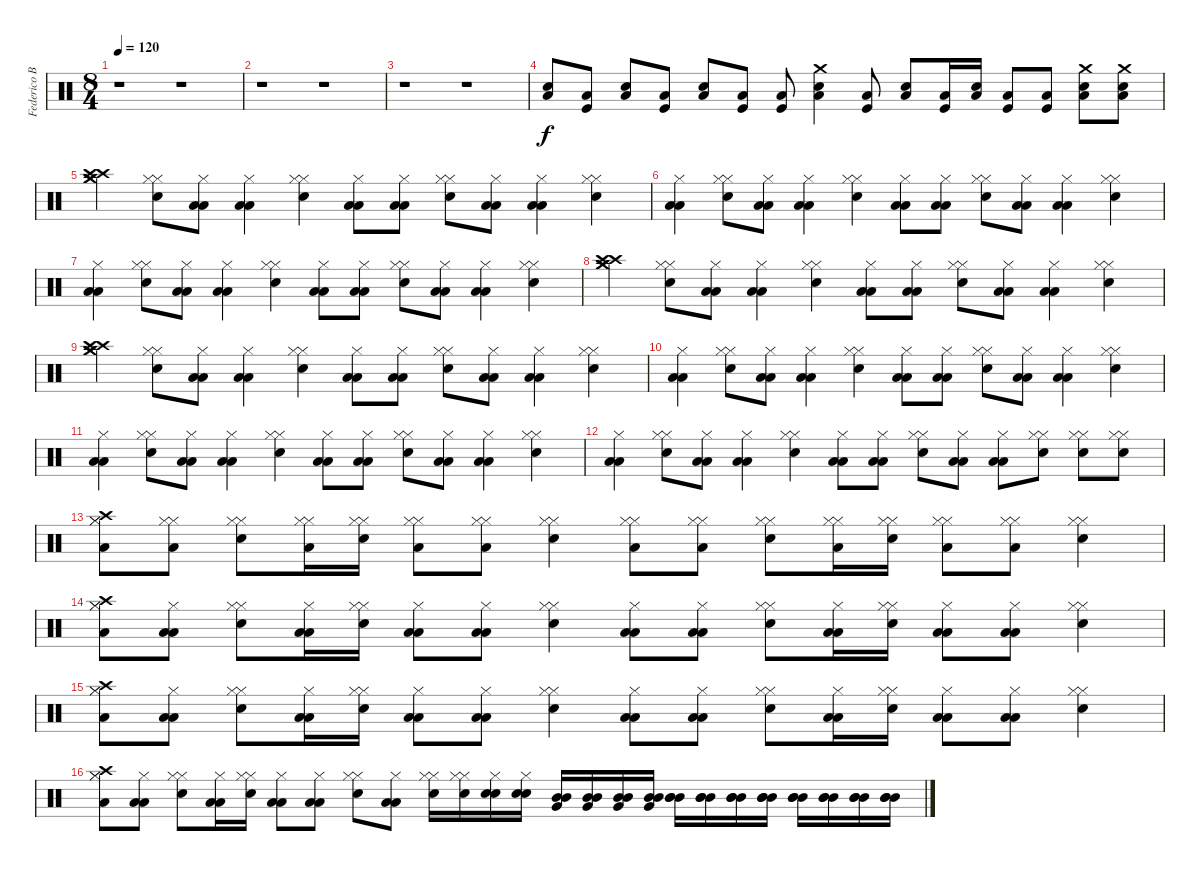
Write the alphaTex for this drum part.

\track ("Federico Bogliaccino - Drums" "Federico B") {instrument percussion}
\staff {score}
\articulation defaults
\ts (8 4)
\tempo 120
\clef neutral
\ks c
r.1{dy f} r.1 |
r.1 r.1 |
r.1 r.1 |
("Low Floor Tom (hit)" "Snare (hit) 2").8 ("Low Floor Tom (hit)" "Kick (hit)").8 ("Low Floor Tom (hit)" "Snare (hit) 2").8 ("Low Floor Tom (hit)" "Kick (hit)").8 ("Low Floor Tom (hit)" "Snare (hit) 2").8 ("Low Floor Tom (hit)" "Kick (hit)").8 ("Low Floor Tom (hit)" "Kick (hit)").8 ("Crash medium (hit)" "Low Floor Tom (hit)" "Snare (hit) 2").4 ("Low Floor Tom (hit)" "Kick (hit)").8 ("Low Floor Tom (hit)" "Snare (hit) 2").8 ("Low Floor Tom (hit)" "Kick (hit)").16 ("Low Floor Tom (hit)" "Snare (hit) 2").16 ("Low Floor Tom (hit)" "Kick (hit)").8 ("Low Floor Tom (hit)" "Kick (hit)").8 ("Crash medium (hit)" "Low Floor Tom (hit)" "Snare (hit) 2").8 ("Crash medium (hit)" "Low Floor Tom (hit)" "Snare (hit) 2").8 |
("Crash medium (hit)" "Crash medium (hit)" "Crash high (hit)" "Crash high (hit)").4 ("Hi-Hat (closed)" "Hi-Hat (closed)" "Snare (hit) 2").8 ("Hi-Hat (closed)" "Low Floor Tom (hit)" "Low Floor Tom (hit)").8 ("Hi-Hat (closed)" "Low Floor Tom (hit)" "Low Floor Tom (hit)").4 ("Hi-Hat (closed)" "Hi-Hat (closed)" "Snare (hit) 2").4 ("Hi-Hat (closed)" "Low Floor Tom (hit)" "Low Floor Tom (hit)").8 ("Hi-Hat (closed)" "Low Floor Tom (hit)" "Low Floor Tom (hit)").8 ("Hi-Hat (closed)" "Hi-Hat (closed)" "Snare (hit) 2").8 ("Hi-Hat (closed)" "Low Floor Tom (hit)" "Low Floor Tom (hit)").8 ("Hi-Hat (closed)" "Low Floor Tom (hit)" "Low Floor Tom (hit)").4 ("Hi-Hat (closed)" "Hi-Hat (closed)" "Snare (hit) 2").4 |
("Hi-Hat (closed)" "Low Floor Tom (hit)" "Low Floor Tom (hit)").4 ("Hi-Hat (closed)" "Hi-Hat (closed)" "Snare (hit) 2").8 ("Hi-Hat (closed)" "Low Floor Tom (hit)" "Low Floor Tom (hit)").8 ("Hi-Hat (closed)" "Low Floor Tom (hit)" "Low Floor Tom (hit)").4 ("Hi-Hat (closed)" "Hi-Hat (closed)" "Snare (hit) 2").4 ("Hi-Hat (closed)" "Low Floor Tom (hit)" "Low Floor Tom (hit)").8 ("Hi-Hat (closed)" "Low Floor Tom (hit)" "Low Floor Tom (hit)").8 ("Hi-Hat (closed)" "Hi-Hat (closed)" "Snare (hit) 2").8 ("Hi-Hat (closed)" "Low Floor Tom (hit)" "Low Floor Tom (hit)").8 ("Hi-Hat (closed)" "Low Floor Tom (hit)" "Low Floor Tom (hit)").4 ("Hi-Hat (closed)" "Hi-Hat (closed)" "Snare (hit) 2").4 |
("Hi-Hat (closed)" "Low Floor Tom (hit)" "Low Floor Tom (hit)").4 ("Hi-Hat (closed)" "Hi-Hat (closed)" "Snare (hit) 2").8 ("Hi-Hat (closed)" "Low Floor Tom (hit)" "Low Floor Tom (hit)").8 ("Hi-Hat (closed)" "Low Floor Tom (hit)" "Low Floor Tom (hit)").4 ("Hi-Hat (closed)" "Hi-Hat (closed)" "Snare (hit) 2").4 ("Hi-Hat (closed)" "Low Floor Tom (hit)" "Low Floor Tom (hit)").8 ("Hi-Hat (closed)" "Low Floor Tom (hit)" "Low Floor Tom (hit)").8 ("Hi-Hat (closed)" "Hi-Hat (closed)" "Snare (hit) 2").8 ("Hi-Hat (closed)" "Low Floor Tom (hit)" "Low Floor Tom (hit)").8 ("Hi-Hat (closed)" "Low Floor Tom (hit)" "Low Floor Tom (hit)").4 ("Hi-Hat (closed)" "Hi-Hat (closed)" "Snare (hit) 2").4 |
("Crash medium (hit)" "Crash medium (hit)" "Crash high (hit)" "Crash high (hit)").4 ("Hi-Hat (closed)" "Hi-Hat (closed)" "Snare (hit) 2").8 ("Hi-Hat (closed)" "Low Floor Tom (hit)" "Low Floor Tom (hit)").8 ("Hi-Hat (closed)" "Low Floor Tom (hit)" "Low Floor Tom (hit)").4 ("Hi-Hat (closed)" "Hi-Hat (closed)" "Snare (hit) 2").4 ("Hi-Hat (closed)" "Low Floor Tom (hit)" "Low Floor Tom (hit)").8 ("Hi-Hat (closed)" "Low Floor Tom (hit)" "Low Floor Tom (hit)").8 ("Hi-Hat (closed)" "Hi-Hat (closed)" "Snare (hit) 2").8 ("Hi-Hat (closed)" "Low Floor Tom (hit)" "Low Floor Tom (hit)").8 ("Hi-Hat (closed)" "Low Floor Tom (hit)" "Low Floor Tom (hit)").4 ("Hi-Hat (closed)" "Hi-Hat (closed)" "Snare (hit) 2").4 |
("Crash medium (hit)" "Crash medium (hit)" "Crash high (hit)" "Crash high (hit)").4 ("Hi-Hat (closed)" "Hi-Hat (closed)" "Snare (hit) 2").8 ("Hi-Hat (closed)" "Low Floor Tom (hit)" "Low Floor Tom (hit)").8 ("Hi-Hat (closed)" "Low Floor Tom (hit)" "Low Floor Tom (hit)").4 ("Hi-Hat (closed)" "Hi-Hat (closed)" "Snare (hit) 2").4 ("Hi-Hat (closed)" "Low Floor Tom (hit)" "Low Floor Tom (hit)").8 ("Hi-Hat (closed)" "Low Floor Tom (hit)" "Low Floor Tom (hit)").8 ("Hi-Hat (closed)" "Hi-Hat (closed)" "Snare (hit) 2").8 ("Hi-Hat (closed)" "Low Floor Tom (hit)" "Low Floor Tom (hit)").8 ("Hi-Hat (closed)" "Low Floor Tom (hit)" "Low Floor Tom (hit)").4 ("Hi-Hat (closed)" "Hi-Hat (closed)" "Snare (hit) 2").4 |
("Hi-Hat (closed)" "Low Floor Tom (hit)" "Low Floor Tom (hit)").4 ("Hi-Hat (closed)" "Hi-Hat (closed)" "Snare (hit) 2").8 ("Hi-Hat (closed)" "Low Floor Tom (hit)" "Low Floor Tom (hit)").8 ("Hi-Hat (closed)" "Low Floor Tom (hit)" "Low Floor Tom (hit)").4 ("Hi-Hat (closed)" "Hi-Hat (closed)" "Snare (hit) 2").4 ("Hi-Hat (closed)" "Low Floor Tom (hit)" "Low Floor Tom (hit)").8 ("Hi-Hat (closed)" "Low Floor Tom (hit)" "Low Floor Tom (hit)").8 ("Hi-Hat (closed)" "Hi-Hat (closed)" "Snare (hit) 2").8 ("Hi-Hat (closed)" "Low Floor Tom (hit)" "Low Floor Tom (hit)").8 ("Hi-Hat (closed)" "Low Floor Tom (hit)" "Low Floor Tom (hit)").4 ("Hi-Hat (closed)" "Hi-Hat (closed)" "Snare (hit) 2").4 |
("Hi-Hat (closed)" "Low Floor Tom (hit)" "Low Floor Tom (hit)").4 ("Hi-Hat (closed)" "Hi-Hat (closed)" "Snare (hit) 2").8 ("Hi-Hat (closed)" "Low Floor Tom (hit)" "Low Floor Tom (hit)").8 ("Hi-Hat (closed)" "Low Floor Tom (hit)" "Low Floor Tom (hit)").4 ("Hi-Hat (closed)" "Hi-Hat (closed)" "Snare (hit) 2").4 ("Hi-Hat (closed)" "Low Floor Tom (hit)" "Low Floor Tom (hit)").8 ("Hi-Hat (closed)" "Low Floor Tom (hit)" "Low Floor Tom (hit)").8 ("Hi-Hat (closed)" "Hi-Hat (closed)" "Snare (hit) 2").8 ("Hi-Hat (closed)" "Low Floor Tom (hit)" "Low Floor Tom (hit)").8 ("Hi-Hat (closed)" "Low Floor Tom (hit)" "Low Floor Tom (hit)").4 ("Hi-Hat (closed)" "Hi-Hat (closed)" "Snare (hit) 2").4 |
("Hi-Hat (closed)" "Low Floor Tom (hit)" "Low Floor Tom (hit)").4 ("Hi-Hat (closed)" "Hi-Hat (closed)" "Snare (hit) 2").8 ("Hi-Hat (closed)" "Low Floor Tom (hit)" "Low Floor Tom (hit)").8 ("Hi-Hat (closed)" "Low Floor Tom (hit)" "Low Floor Tom (hit)").4 ("Hi-Hat (closed)" "Hi-Hat (closed)" "Snare (hit) 2").4 ("Hi-Hat (closed)" "Low Floor Tom (hit)" "Low Floor Tom (hit)").8 ("Hi-Hat (closed)" "Low Floor Tom (hit)" "Low Floor Tom (hit)").8 ("Hi-Hat (closed)" "Hi-Hat (closed)" "Snare (hit) 2").8 ("Hi-Hat (closed)" "Low Floor Tom (hit)" "Low Floor Tom (hit)").8 ("Hi-Hat (closed)" "Low Floor Tom (hit)" "Low Floor Tom (hit)").8 ("Hi-Hat (closed)" "Hi-Hat (closed)" "Snare (hit) 2").8 ("Hi-Hat (closed)" "Hi-Hat (closed)" "Snare (hit) 2").8 ("Hi-Hat (closed)" "Hi-Hat (closed)" "Snare (hit) 2").8 |
("Crash high (hit)" "Hi-Hat (closed)" "Hi-Hat (closed)" "Low Floor Tom (hit)").8 ("Hi-Hat (closed)" "Hi-Hat (closed)" "Low Floor Tom (hit)").8 ("Hi-Hat (closed)" "Hi-Hat (closed)" "Snare (hit) 2").8 ("Hi-Hat (closed)" "Hi-Hat (closed)" "Low Floor Tom (hit)").16 ("Hi-Hat (closed)" "Hi-Hat (closed)" "Snare (hit) 2").16 ("Hi-Hat (closed)" "Hi-Hat (closed)" "Low Floor Tom (hit)").8 ("Hi-Hat (closed)" "Hi-Hat (closed)" "Low Floor Tom (hit)").8 ("Hi-Hat (closed)" "Hi-Hat (closed)" "Snare (hit) 2").4 ("Hi-Hat (closed)" "Hi-Hat (closed)" "Low Floor Tom (hit)").8 ("Hi-Hat (closed)" "Hi-Hat (closed)" "Low Floor Tom (hit)").8 ("Hi-Hat (closed)" "Hi-Hat (closed)" "Snare (hit) 2").8 ("Hi-Hat (closed)" "Hi-Hat (closed)" "Low Floor Tom (hit)").16 ("Hi-Hat (closed)" "Hi-Hat (closed)" "Snare (hit) 2").16 ("Hi-Hat (closed)" "Hi-Hat (closed)" "Low Floor Tom (hit)").8 ("Hi-Hat (closed)" "Hi-Hat (closed)" "Low Floor Tom (hit)").8 ("Hi-Hat (closed)" "Hi-Hat (closed)" "Snare (hit) 2").4 |
("Crash high (hit)" "Hi-Hat (closed)" "Hi-Hat (closed)" "Low Floor Tom (hit)").8 ("Hi-Hat (closed)" "Low Floor Tom (hit)" "Low Floor Tom (hit)").8 ("Hi-Hat (closed)" "Hi-Hat (closed)" "Snare (hit) 2").8 ("Hi-Hat (closed)" "Low Floor Tom (hit)" "Low Floor Tom (hit)").16 ("Hi-Hat (closed)" "Hi-Hat (closed)" "Snare (hit) 2").16 ("Hi-Hat (closed)" "Low Floor Tom (hit)" "Low Floor Tom (hit)").8 ("Hi-Hat (closed)" "Low Floor Tom (hit)" "Low Floor Tom (hit)").8 ("Hi-Hat (closed)" "Hi-Hat (closed)" "Snare (hit) 2").4 ("Hi-Hat (closed)" "Low Floor Tom (hit)" "Low Floor Tom (hit)").8 ("Hi-Hat (closed)" "Low Floor Tom (hit)" "Low Floor Tom (hit)").8 ("Hi-Hat (closed)" "Hi-Hat (closed)" "Snare (hit) 2").8 ("Hi-Hat (closed)" "Low Floor Tom (hit)" "Low Floor Tom (hit)").16 ("Hi-Hat (closed)" "Hi-Hat (closed)" "Snare (hit) 2").16 ("Hi-Hat (closed)" "Low Floor Tom (hit)" "Low Floor Tom (hit)").8 ("Hi-Hat (closed)" "Low Floor Tom (hit)" "Low Floor Tom (hit)").8 ("Hi-Hat (closed)" "Hi-Hat (closed)" "Snare (hit) 2").4 |
("Crash high (hit)" "Hi-Hat (closed)" "Hi-Hat (closed)" "Low Floor Tom (hit)").8 ("Hi-Hat (closed)" "Low Floor Tom (hit)" "Low Floor Tom (hit)").8 ("Hi-Hat (closed)" "Hi-Hat (closed)" "Snare (hit) 2").8 ("Hi-Hat (closed)" "Low Floor Tom (hit)" "Low Floor Tom (hit)").16 ("Hi-Hat (closed)" "Hi-Hat (closed)" "Snare (hit) 2").16 ("Hi-Hat (closed)" "Low Floor Tom (hit)" "Low Floor Tom (hit)").8 ("Hi-Hat (closed)" "Low Floor Tom (hit)" "Low Floor Tom (hit)").8 ("Hi-Hat (closed)" "Hi-Hat (closed)" "Snare (hit) 2").4 ("Hi-Hat (closed)" "Low Floor Tom (hit)" "Low Floor Tom (hit)").8 ("Hi-Hat (closed)" "Low Floor Tom (hit)" "Low Floor Tom (hit)").8 ("Hi-Hat (closed)" "Hi-Hat (closed)" "Snare (hit) 2").8 ("Hi-Hat (closed)" "Low Floor Tom (hit)" "Low Floor Tom (hit)").16 ("Hi-Hat (closed)" "Hi-Hat (closed)" "Snare (hit) 2").16 ("Hi-Hat (closed)" "Low Floor Tom (hit)" "Low Floor Tom (hit)").8 ("Hi-Hat (closed)" "Low Floor Tom (hit)" "Low Floor Tom (hit)").8 ("Hi-Hat (closed)" "Hi-Hat (closed)" "Snare (hit) 2").4 |
("Crash high (hit)" "Hi-Hat (closed)" "Hi-Hat (closed)" "Low Floor Tom (hit)").8 ("Hi-Hat (closed)" "Low Floor Tom (hit)" "Low Floor Tom (hit)").8 ("Hi-Hat (closed)" "Hi-Hat (closed)" "Snare (hit) 2").8 ("Hi-Hat (closed)" "Low Floor Tom (hit)" "Low Floor Tom (hit)").16 ("Hi-Hat (closed)" "Hi-Hat (closed)" "Snare (hit) 2").16 ("Hi-Hat (closed)" "Low Floor Tom (hit)" "Low Floor Tom (hit)").8 ("Hi-Hat (closed)" "Low Floor Tom (hit)" "Low Floor Tom (hit)").8 ("Hi-Hat (closed)" "Hi-Hat (closed)" "Snare (hit) 2").8 ("Hi-Hat (closed)" "Low Floor Tom (hit)" "Low Floor Tom (hit)").8 ("Hi-Hat (closed)" "Hi-Hat (closed)" "Snare (hit) 2").16 ("Hi-Hat (closed)" "Hi-Hat (closed)" "Snare (hit) 2").16 ("Hi-Hat (closed)" "Snare (hit) 2" "Snare (hit) 2").16 ("Hi-Hat (closed)" "Snare (hit) 2" "Snare (hit) 2").16 ("Mid Tom (hit)" "Mid Tom (hit)" "Very Low Tom (hit)").16 ("Mid Tom (hit)" "Mid Tom (hit)" "Very Low Tom (hit)").16 ("Mid Tom (hit)" "Mid Tom (hit)" "Very Low Tom (hit)").16 ("Mid Tom (hit)" "Mid Tom (hit)" "Very Low Tom (hit)").16 ("Mid Tom (hit)" "Mid Tom (hit)" "Mid Tom (hit)").16 ("Mid Tom (hit)" "Mid Tom (hit)" "Mid Tom (hit)").16 ("Mid Tom (hit)" "Mid Tom (hit)" "Mid Tom (hit)").16 ("Mid Tom (hit)" "Mid Tom (hit)" "Mid Tom (hit)").16 ("Mid Tom (hit)" "Mid Tom (hit)" "Mid Tom (hit)").16 ("Mid Tom (hit)" "Mid Tom (hit)" "Mid Tom (hit)").16 ("Mid Tom (hit)" "Mid Tom (hit)" "Mid Tom (hit)").16 ("Mid Tom (hit)" "Mid Tom (hit)" "Mid Tom (hit)").16
